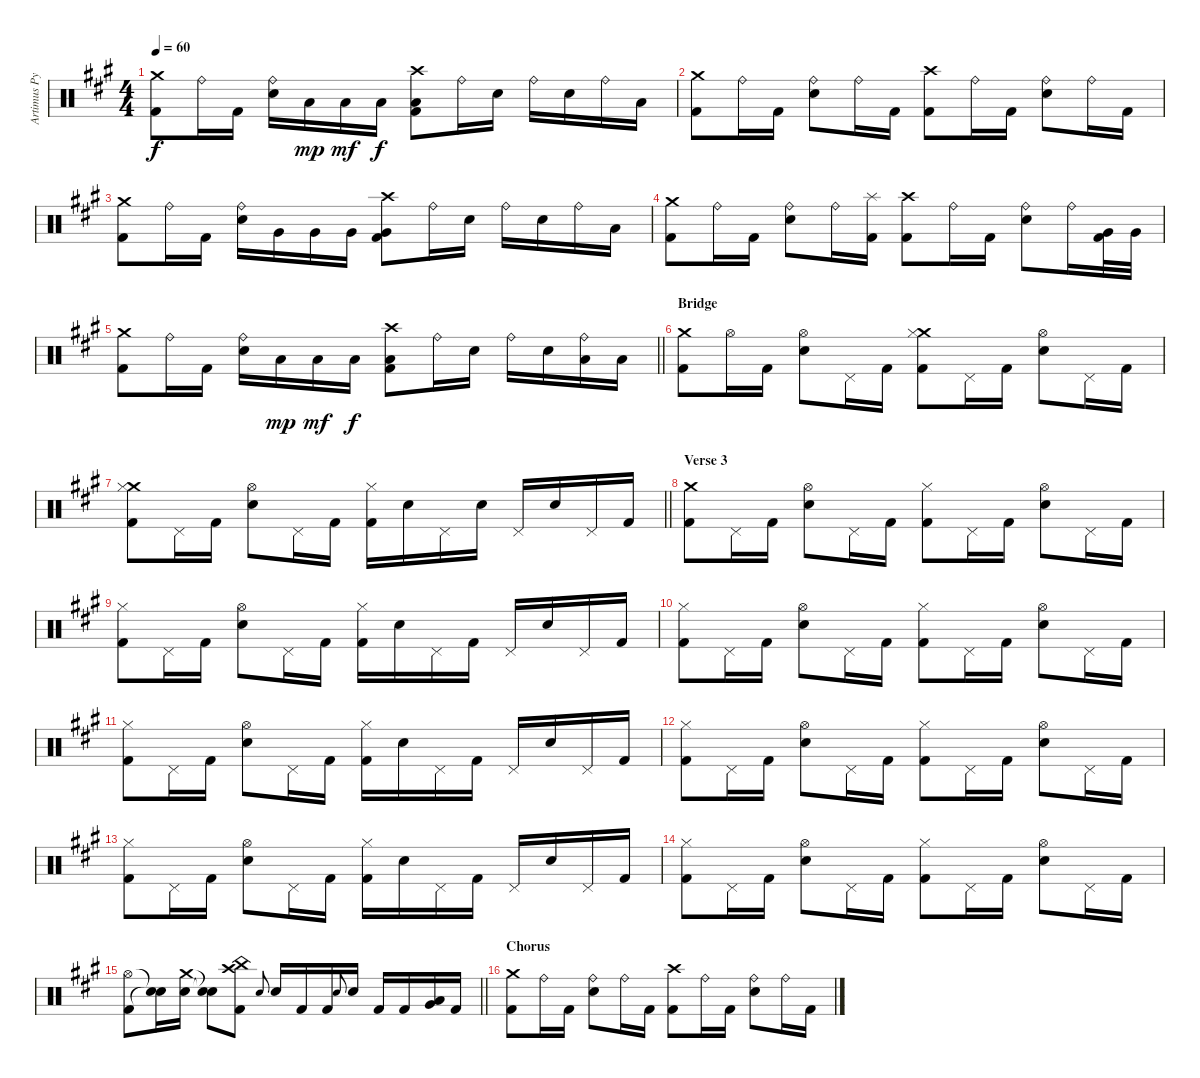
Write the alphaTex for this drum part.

\track ("Artimus Pyle - Drums" "Artimus Py") {instrument percussion}
\staff {score}
\articulation defaults
\ts (4 4)
\tempo 60
\clef neutral
\ks f#minor
("Crash medium (hit)" "Kick (hit) 2").8{dy f} "Ride (bell)".16 "Kick (hit) 2".16 ("Ride (bell)" "Snare (hit) 2").16 "Low Floor Tom (hit)".16{dy mp} "Low Floor Tom (hit)".16{dy mf} "Low Floor Tom (hit)".16{dy f} ("Crash high (hit)" "Low Floor Tom (hit)" "Kick (hit) 2").8 "Ride (bell)".16 "Snare (hit) 2".16 "Ride (bell)".16 "Snare (hit) 2".16 "Ride (bell)".16 "Low Floor Tom (hit)".16 |
("Crash medium (hit)" "Kick (hit) 2").8 "Ride (bell)".16 "Kick (hit) 2".16 ("Ride (bell)" "Snare (hit) 2").8 "Ride (bell)".16 "Kick (hit) 2".16 ("Crash high (hit)" "Kick (hit) 2").8 "Ride (bell)".16 "Kick (hit) 2".16 ("Ride (bell)" "Snare (hit) 2").8 "Ride (bell)".16 "Kick (hit) 2".16 |
("Crash medium (hit)" "Kick (hit) 2").8 "Ride (bell)".16 "Kick (hit) 2".16 ("Ride (bell)" "Snare (hit) 2").16 "Very Low Tom (hit)".16 "Very Low Tom (hit)".16 "Very Low Tom (hit)".16 ("Crash high (hit)" "Very Low Tom (hit)" "Kick (hit) 2").8 "Ride (bell)".16 "Snare (hit) 2".16 "Ride (bell)".16 "Snare (hit) 2".16 "Ride (bell)".16 "Low Floor Tom (hit)".16 |
("Crash medium (hit)" "Kick (hit) 2").8 "Ride (bell)".16 "Kick (hit) 2".16 ("Ride (bell)" "Snare (hit) 2").8 "Ride (bell)".16 ("Splash (hit)" "Kick (hit) 2").16 ("Crash high (hit)" "Kick (hit) 2").8 "Ride (bell)".16 "Kick (hit) 2".16 ("Ride (bell)" "Snare (hit) 2").8 "Ride (bell)".16 ("Very Low Tom (hit)" "Kick (hit) 2").32 "Very Low Tom (hit)".32 |
\barLineRight lightlight
("Crash medium (hit)" "Kick (hit) 2").8 "Ride (bell)".16 "Kick (hit) 2".16 ("Ride (bell)" "Snare (hit) 2").16 "Low Floor Tom (hit)".16{dy mp} "Low Floor Tom (hit)".16{dy mf} "Low Floor Tom (hit)".16{dy f} ("Crash high (hit)" "Low Floor Tom (hit)" "Kick (hit) 2").8 "Ride (bell)".16 "Snare (hit) 2".16 "Ride (bell)".16 "Snare (hit) 2".16 ("Ride (bell)" "Low Floor Tom (hit)").16 "Low Floor Tom (hit)".16 |
\section ("" "Bridge")
("Crash medium (hit)" "Kick (hit) 2").8 "Hi-Hat (open)".16 "Kick (hit) 2".16 ("Snare (hit) 2" "Hi-Hat (open)").8 "Pedal Hi-Hat (hit)".16 "Kick (hit) 2".16 ("Crash medium (hit)" "Hi-Hat (closed)" "Kick (hit) 2").8 "Pedal Hi-Hat (hit)".16 "Kick (hit) 2".16 ("Snare (hit) 2" "Hi-Hat (open)").8 "Pedal Hi-Hat (hit)".16 "Kick (hit) 2".16 |
\barLineRight lightlight
("Crash medium (hit)" "Hi-Hat (closed)" "Kick (hit) 2").8 "Pedal Hi-Hat (hit)".16 "Kick (hit) 2".16 ("Snare (hit) 2" "Hi-Hat (open)").8 "Pedal Hi-Hat (hit)".16 "Kick (hit) 2".16 ("Hi-Hat (closed)" "Kick (hit) 2").16 "Snare (hit) 2".16 "Pedal Hi-Hat (hit)".16 "Snare (hit) 2".16 "Pedal Hi-Hat (hit)".16 "Snare (hit) 2".16 "Pedal Hi-Hat (hit)".16 "Kick (hit) 2".16 |
\section ("" "Verse 3")
("Crash medium (hit)" "Kick (hit) 2").8 "Pedal Hi-Hat (hit)".16 "Kick (hit) 2".16 ("Snare (hit) 2" "Hi-Hat (open)").8 "Pedal Hi-Hat (hit)".16 "Kick (hit) 2".16 ("Hi-Hat (closed)" "Kick (hit) 2").8 "Pedal Hi-Hat (hit)".16 "Kick (hit) 2".16 ("Snare (hit) 2" "Hi-Hat (open)").8 "Pedal Hi-Hat (hit)".16 "Kick (hit) 2".16 |
("Hi-Hat (closed)" "Kick (hit) 2").8 "Pedal Hi-Hat (hit)".16 "Kick (hit) 2".16 ("Snare (hit) 2" "Hi-Hat (open)").8 "Pedal Hi-Hat (hit)".16 "Kick (hit) 2".16 ("Hi-Hat (closed)" "Kick (hit) 2").16 "Snare (hit) 2".16 "Pedal Hi-Hat (hit)".16 "Kick (hit) 2".16 "Pedal Hi-Hat (hit)".16 "Snare (hit) 2".16 "Pedal Hi-Hat (hit)".16 "Kick (hit) 2".16 |
("Hi-Hat (closed)" "Kick (hit) 2").8 "Pedal Hi-Hat (hit)".16 "Kick (hit) 2".16 ("Snare (hit) 2" "Hi-Hat (open)").8 "Pedal Hi-Hat (hit)".16 "Kick (hit) 2".16 ("Hi-Hat (closed)" "Kick (hit) 2").8 "Pedal Hi-Hat (hit)".16 "Kick (hit) 2".16 ("Snare (hit) 2" "Hi-Hat (open)").8 "Pedal Hi-Hat (hit)".16 "Kick (hit) 2".16 |
("Hi-Hat (closed)" "Kick (hit) 2").8 "Pedal Hi-Hat (hit)".16 "Kick (hit) 2".16 ("Snare (hit) 2" "Hi-Hat (open)").8 "Pedal Hi-Hat (hit)".16 "Kick (hit) 2".16 ("Hi-Hat (closed)" "Kick (hit) 2").16 "Snare (hit) 2".16 "Pedal Hi-Hat (hit)".16 "Kick (hit) 2".16 "Pedal Hi-Hat (hit)".16 "Snare (hit) 2".16 "Pedal Hi-Hat (hit)".16 "Kick (hit) 2".16 |
("Hi-Hat (closed)" "Kick (hit) 2").8 "Pedal Hi-Hat (hit)".16 "Kick (hit) 2".16 ("Snare (hit) 2" "Hi-Hat (open)").8 "Pedal Hi-Hat (hit)".16 "Kick (hit) 2".16 ("Hi-Hat (closed)" "Kick (hit) 2").8 "Pedal Hi-Hat (hit)".16 "Kick (hit) 2".16 ("Snare (hit) 2" "Hi-Hat (open)").8 "Pedal Hi-Hat (hit)".16 "Kick (hit) 2".16 |
("Hi-Hat (closed)" "Kick (hit) 2").8 "Pedal Hi-Hat (hit)".16 "Kick (hit) 2".16 ("Snare (hit) 2" "Hi-Hat (open)").8 "Pedal Hi-Hat (hit)".16 "Kick (hit) 2".16 ("Hi-Hat (closed)" "Kick (hit) 2").16 "Snare (hit) 2".16 "Pedal Hi-Hat (hit)".16 "Kick (hit) 2".16 "Pedal Hi-Hat (hit)".16 "Snare (hit) 2".16 "Pedal Hi-Hat (hit)".16 "Kick (hit) 2".16 |
("Hi-Hat (closed)" "Kick (hit) 2").8 "Pedal Hi-Hat (hit)".16 "Kick (hit) 2".16 ("Snare (hit) 2" "Hi-Hat (open)").8 "Pedal Hi-Hat (hit)".16 "Kick (hit) 2".16 ("Hi-Hat (closed)" "Kick (hit) 2").8 "Pedal Hi-Hat (hit)".16 "Kick (hit) 2".16 ("Snare (hit) 2" "Hi-Hat (open)").8 "Pedal Hi-Hat (hit)".16 "Kick (hit) 2".16 |
\barLineRight lightlight
("Hi-Hat (open)" "Kick (hit) 2").8 ("Snare (hit)"{t} "Snare (hit)"{t}).16 ("Crash medium (hit)" "Snare (hit) 2").16 ("Snare (hit)"{t} "Snare (hit)"{t}).8 ("China (hit)" "Crash high (hit)" "Kick (hit) 2").8 "Snare (hit) 2".8{gr onbeat} "Snare (hit) 2".16 "Kick (hit) 2".16 "Kick (hit) 2".16 "Snare (hit) 2".8{gr onbeat} "Snare (hit) 2".16 "Kick (hit) 2".16 "Kick (hit) 2".16 ("Very Low Tom (hit)" "Low Floor Tom (hit)").16 "Kick (hit) 2".16 |
\section ("" "Chorus")
("Crash medium (hit)" "Kick (hit) 2").8 "Ride (bell)".16 "Kick (hit) 2".16 ("Ride (bell)" "Snare (hit) 2").8 "Ride (bell)".16 "Kick (hit) 2".16 ("Crash high (hit)" "Kick (hit) 2").8 "Ride (bell)".16 "Kick (hit) 2".16 ("Ride (bell)" "Snare (hit) 2").8 "Ride (bell)".16 "Kick (hit) 2".16
